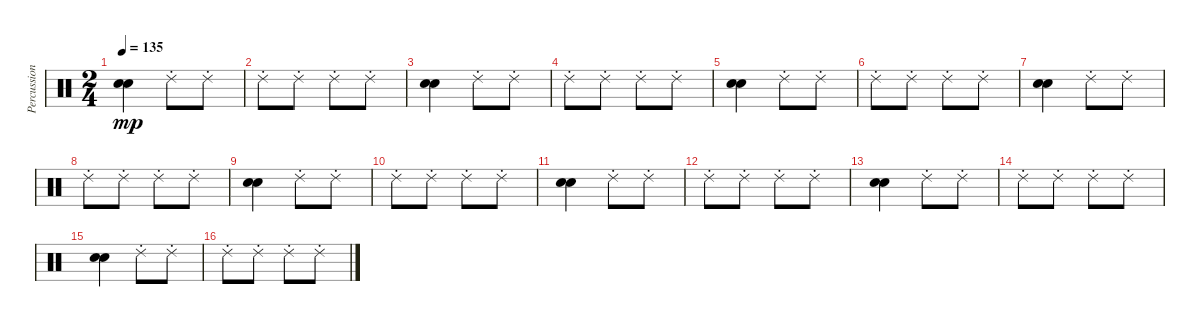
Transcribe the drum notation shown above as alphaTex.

\track ("Percussions" "Percussion") {instrument percussion}
\staff {score}
\articulation defaults
\ts (2 4)
\tempo 135
\clef neutral
\ks c
("Electric Snare (hit)" "Snare (hit) 2").4{dy mp} "Ride (choke) 2".8 "Ride (choke) 2".8 |
"Ride (choke) 2".8 "Ride (choke) 2".8 "Ride (choke) 2".8 "Ride (choke) 2".8 |
("Electric Snare (hit)" "Snare (hit) 2").4 "Ride (choke) 2".8 "Ride (choke) 2".8 |
"Ride (choke) 2".8 "Ride (choke) 2".8 "Ride (choke) 2".8 "Ride (choke) 2".8 |
("Electric Snare (hit)" "Snare (hit) 2").4 "Ride (choke) 2".8 "Ride (choke) 2".8 |
"Ride (choke) 2".8 "Ride (choke) 2".8 "Ride (choke) 2".8 "Ride (choke) 2".8 |
("Electric Snare (hit)" "Snare (hit) 2").4 "Ride (choke) 2".8 "Ride (choke) 2".8 |
"Ride (choke) 2".8 "Ride (choke) 2".8 "Ride (choke) 2".8 "Ride (choke) 2".8 |
("Electric Snare (hit)" "Snare (hit) 2").4 "Ride (choke) 2".8 "Ride (choke) 2".8 |
"Ride (choke) 2".8 "Ride (choke) 2".8 "Ride (choke) 2".8 "Ride (choke) 2".8 |
("Electric Snare (hit)" "Snare (hit) 2").4 "Ride (choke) 2".8 "Ride (choke) 2".8 |
"Ride (choke) 2".8 "Ride (choke) 2".8 "Ride (choke) 2".8 "Ride (choke) 2".8 |
("Electric Snare (hit)" "Snare (hit) 2").4 "Ride (choke) 2".8 "Ride (choke) 2".8 |
"Ride (choke) 2".8 "Ride (choke) 2".8 "Ride (choke) 2".8 "Ride (choke) 2".8 |
("Electric Snare (hit)" "Snare (hit) 2").4 "Ride (choke) 2".8 "Ride (choke) 2".8 |
"Ride (choke) 2".8 "Ride (choke) 2".8 "Ride (choke) 2".8 "Ride (choke) 2".8
